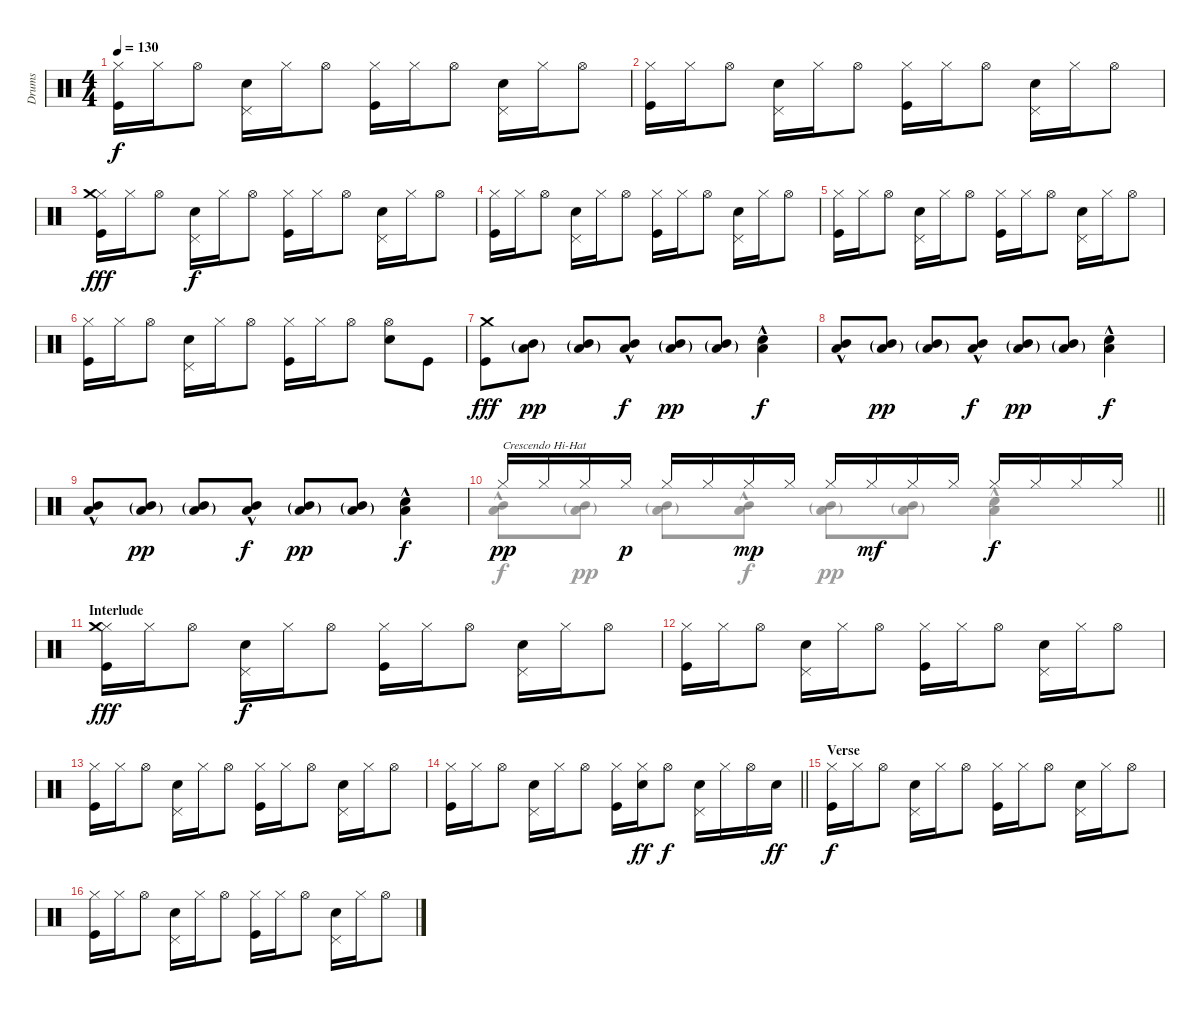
\track ("Drums" "Drums") {instrument percussion}
\staff {score}
\articulation defaults
\voice
\ts (4 4)
\tempo 130
\clef neutral
\ks c
("Hi-Hat (closed)" "Kick (hit)").16{dy f} "Hi-Hat (closed)".16 "Hi-Hat (open)".8 ("Pedal Hi-Hat (hit)" "Electric Snare (hit)").16 "Hi-Hat (closed)".16 "Hi-Hat (open)".8 ("Hi-Hat (closed)" "Kick (hit)").16 "Hi-Hat (closed)".16 "Hi-Hat (open)".8 ("Pedal Hi-Hat (hit)" "Electric Snare (hit)").16 "Hi-Hat (closed)".16 "Hi-Hat (open)".8 |
("Hi-Hat (closed)" "Kick (hit)").16 "Hi-Hat (closed)".16 "Hi-Hat (open)".8 ("Pedal Hi-Hat (hit)" "Electric Snare (hit)").16 "Hi-Hat (closed)".16 "Hi-Hat (open)".8 ("Hi-Hat (closed)" "Kick (hit)").16 "Hi-Hat (closed)".16 "Hi-Hat (open)".8 ("Pedal Hi-Hat (hit)" "Electric Snare (hit)").16 "Hi-Hat (closed)".16 "Hi-Hat (open)".8 |
("Hi-Hat (closed)" "Crash medium (hit)" "Kick (hit)").16{dy fff} "Hi-Hat (closed)".16 "Hi-Hat (open)".8 ("Pedal Hi-Hat (hit)" "Electric Snare (hit)").16{dy f} "Hi-Hat (closed)".16 "Hi-Hat (open)".8 ("Hi-Hat (closed)" "Kick (hit)").16 "Hi-Hat (closed)".16 "Hi-Hat (open)".8 ("Pedal Hi-Hat (hit)" "Electric Snare (hit)").16 "Hi-Hat (closed)".16 "Hi-Hat (open)".8 |
("Hi-Hat (closed)" "Kick (hit)").16 "Hi-Hat (closed)".16 "Hi-Hat (open)".8 ("Pedal Hi-Hat (hit)" "Electric Snare (hit)").16 "Hi-Hat (closed)".16 "Hi-Hat (open)".8 ("Hi-Hat (closed)" "Kick (hit)").16 "Hi-Hat (closed)".16 "Hi-Hat (open)".8 ("Pedal Hi-Hat (hit)" "Electric Snare (hit)").16 "Hi-Hat (closed)".16 "Hi-Hat (open)".8 |
("Hi-Hat (closed)" "Kick (hit)").16 "Hi-Hat (closed)".16 "Hi-Hat (open)".8 ("Pedal Hi-Hat (hit)" "Electric Snare (hit)").16 "Hi-Hat (closed)".16 "Hi-Hat (open)".8 ("Hi-Hat (closed)" "Kick (hit)").16 "Hi-Hat (closed)".16 "Hi-Hat (open)".8 ("Pedal Hi-Hat (hit)" "Electric Snare (hit)").16 "Hi-Hat (closed)".16 "Hi-Hat (open)".8 |
("Hi-Hat (closed)" "Kick (hit)").16 "Hi-Hat (closed)".16 "Hi-Hat (open)".8 ("Pedal Hi-Hat (hit)" "Electric Snare (hit)").16 "Hi-Hat (closed)".16 "Hi-Hat (open)".8 ("Hi-Hat (closed)" "Kick (hit)").16 "Hi-Hat (closed)".16 "Hi-Hat (open)".8 ("Hi-Hat (open)" "Electric Snare (hit)").8 "Kick (hit)".8 |
("Crash medium (hit)" "Kick (hit)").8{dy fff} ("Mid Tom (hit)"{g} "Low Tom (hit)"{g}).8{dy pp} ("Mid Tom (hit)"{g} "Low Tom (hit)"{g}).8 ("Mid Tom (hit)"{hac} "Low Tom (hit)"{hac}).8{dy f} ("Mid Tom (hit)"{g} "Low Tom (hit)"{g}).8{dy pp} ("Mid Tom (hit)"{g} "Low Tom (hit)"{g}).8 ("Electric Snare (hit)"{hac} "Low Tom (hit)"{hac}).4{dy f} |
("Mid Tom (hit)"{hac} "Low Tom (hit)"{hac}).8 ("Mid Tom (hit)"{g} "Low Tom (hit)"{g}).8{dy pp} ("Mid Tom (hit)"{g} "Low Tom (hit)"{g}).8 ("Mid Tom (hit)"{hac} "Low Tom (hit)"{hac}).8{dy f} ("Mid Tom (hit)"{g} "Low Tom (hit)"{g}).8{dy pp} ("Mid Tom (hit)"{g} "Low Tom (hit)"{g}).8 ("Electric Snare (hit)"{hac} "Low Tom (hit)"{hac}).4{dy f} |
("Mid Tom (hit)"{hac} "Low Tom (hit)"{hac}).8 ("Mid Tom (hit)"{g} "Low Tom (hit)"{g}).8{dy pp} ("Mid Tom (hit)"{g} "Low Tom (hit)"{g}).8 ("Mid Tom (hit)"{hac} "Low Tom (hit)"{hac}).8{dy f} ("Mid Tom (hit)"{g} "Low Tom (hit)"{g}).8{dy pp} ("Mid Tom (hit)"{g} "Low Tom (hit)"{g}).8 ("Electric Snare (hit)"{hac} "Low Tom (hit)"{hac}).4{dy f} |
\barLineRight lightlight "Hi-Hat (closed)".16{txt "Crescendo Hi-Hat" dy pp} "Hi-Hat (closed)".16 "Hi-Hat (closed)".16 "Hi-Hat (closed)".16{dy p} "Hi-Hat (closed)".16 "Hi-Hat (closed)".16 "Hi-Hat (closed)".16{dy mp} "Hi-Hat (closed)".16 "Hi-Hat (closed)".16 "Hi-Hat (closed)".16{dy mf} "Hi-Hat (closed)".16 "Hi-Hat (closed)".16 "Hi-Hat (closed)".16{dy f} "Hi-Hat (closed)".16 "Hi-Hat (closed)".16 "Hi-Hat (closed)".16
|
\section ("" "Interlude")
("Hi-Hat (closed)" "Crash medium (hit)" "Kick (hit)").16{dy fff} "Hi-Hat (closed)".16 "Hi-Hat (open)".8 ("Pedal Hi-Hat (hit)" "Electric Snare (hit)").16{dy f} "Hi-Hat (closed)".16 "Hi-Hat (open)".8 ("Hi-Hat (closed)" "Kick (hit)").16 "Hi-Hat (closed)".16 "Hi-Hat (open)".8 ("Pedal Hi-Hat (hit)" "Electric Snare (hit)").16 "Hi-Hat (closed)".16 "Hi-Hat (open)".8 |
("Hi-Hat (closed)" "Kick (hit)").16 "Hi-Hat (closed)".16 "Hi-Hat (open)".8 ("Pedal Hi-Hat (hit)" "Electric Snare (hit)").16 "Hi-Hat (closed)".16 "Hi-Hat (open)".8 ("Hi-Hat (closed)" "Kick (hit)").16 "Hi-Hat (closed)".16 "Hi-Hat (open)".8 ("Pedal Hi-Hat (hit)" "Electric Snare (hit)").16 "Hi-Hat (closed)".16 "Hi-Hat (open)".8 |
("Hi-Hat (closed)" "Kick (hit)").16 "Hi-Hat (closed)".16 "Hi-Hat (open)".8 ("Pedal Hi-Hat (hit)" "Electric Snare (hit)").16 "Hi-Hat (closed)".16 "Hi-Hat (open)".8 ("Hi-Hat (closed)" "Kick (hit)").16 "Hi-Hat (closed)".16 "Hi-Hat (open)".8 ("Pedal Hi-Hat (hit)" "Electric Snare (hit)").16 "Hi-Hat (closed)".16 "Hi-Hat (open)".8 |
\barLineRight lightlight
("Hi-Hat (closed)" "Kick (hit)").16 "Hi-Hat (closed)".16 "Hi-Hat (open)".8 ("Pedal Hi-Hat (hit)" "Electric Snare (hit)").16 "Hi-Hat (closed)".16 "Hi-Hat (open)".8 ("Hi-Hat (closed)" "Kick (hit)").16 ("Hi-Hat (closed)" "Electric Snare (hit)").16{dy ff} "Hi-Hat (open)".8{dy f} ("Pedal Hi-Hat (hit)" "Electric Snare (hit)").16 "Hi-Hat (closed)".16 "Hi-Hat (open)".16 "Electric Snare (hit)".16{dy ff} |
\section ("" "Verse")
("Hi-Hat (closed)" "Kick (hit)").16{dy f} "Hi-Hat (closed)".16 "Hi-Hat (open)".8 ("Pedal Hi-Hat (hit)" "Electric Snare (hit)").16 "Hi-Hat (closed)".16 "Hi-Hat (open)".8 ("Hi-Hat (closed)" "Kick (hit)").16 "Hi-Hat (closed)".16 "Hi-Hat (open)".8 ("Pedal Hi-Hat (hit)" "Electric Snare (hit)").16 "Hi-Hat (closed)".16 "Hi-Hat (open)".8 |
("Hi-Hat (closed)" "Kick (hit)").16 "Hi-Hat (closed)".16 "Hi-Hat (open)".8 ("Pedal Hi-Hat (hit)" "Electric Snare (hit)").16 "Hi-Hat (closed)".16 "Hi-Hat (open)".8 ("Hi-Hat (closed)" "Kick (hit)").16 "Hi-Hat (closed)".16 "Hi-Hat (open)".8 ("Pedal Hi-Hat (hit)" "Electric Snare (hit)").16 "Hi-Hat (closed)".16 "Hi-Hat (open)".8
\voice
\clef neutral
\ottava regular
\simile none
\ks c
|
|
|
|
|
|
|
|
|
\barLineRight lightlight
("Mid Tom (hit)"{hac} "Low Tom (hit)"{hac}).8 ("Mid Tom (hit)"{g} "Low Tom (hit)"{g}).8{dy pp} ("Mid Tom (hit)"{g} "Low Tom (hit)"{g}).8 ("Mid Tom (hit)"{hac} "Low Tom (hit)"{hac}).8{dy f} ("Mid Tom (hit)"{g} "Low Tom (hit)"{g}).8{dy pp} ("Mid Tom (hit)"{g} "Low Tom (hit)"{g}).8 ("Electric Snare (hit)"{hac} "Low Tom (hit)"{hac}).4{dy f} |
|
|
|
\barLineRight lightlight
|
|
